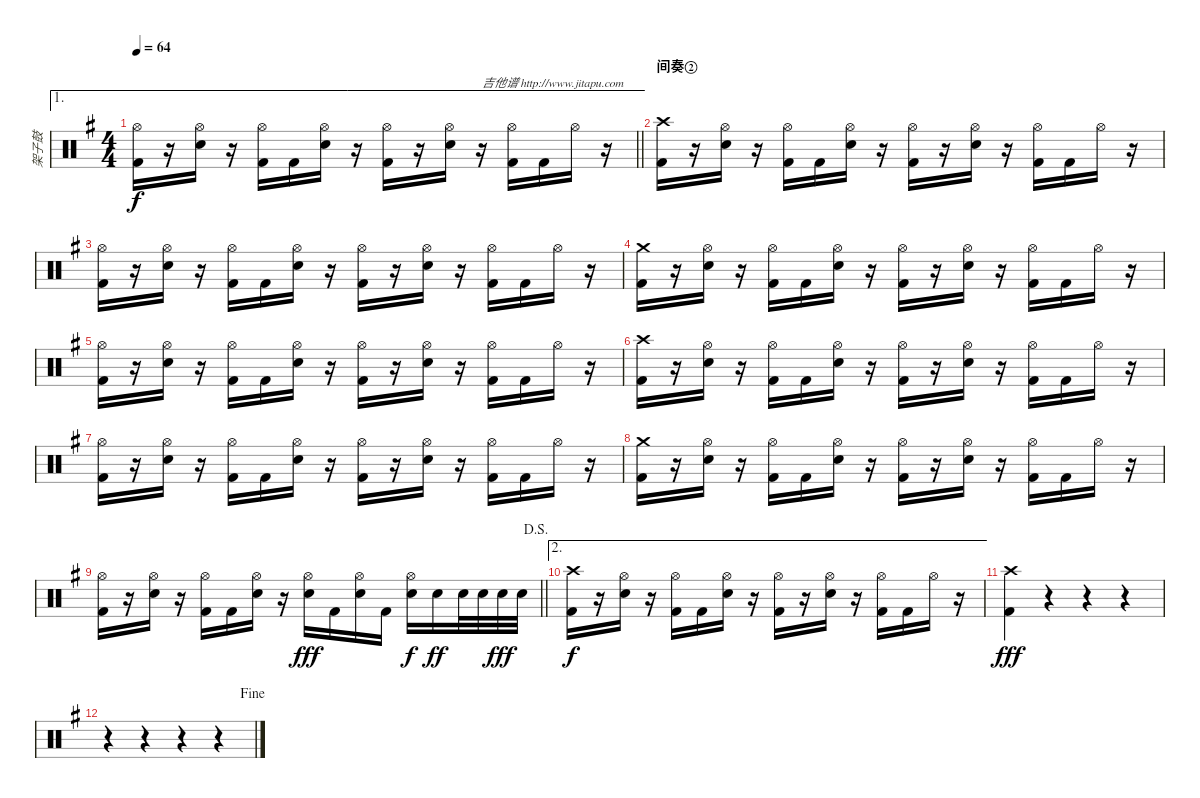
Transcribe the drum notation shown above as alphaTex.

\track ("架子鼓" "架子鼓") {instrument percussion}
\staff {score}
\articulation defaults
\ae 1
\ts (4 4)
\tempo 64
\clef neutral
\barLineRight lightlight
\ks g
("Hi-Hat (open)" "Kick (hit) 2").16{dy f} r.16 ("Hi-Hat (open)" "Electric Snare (hit)").16 r.16 ("Hi-Hat (open)" "Kick (hit) 2").16 "Kick (hit) 2".16 ("Hi-Hat (open)" "Electric Snare (hit)").16 r.16 ("Hi-Hat (open)" "Kick (hit) 2").16 r.16 ("Hi-Hat (open)" "Electric Snare (hit)").16 r.16{txt "吉他谱 http://www.jitapu.com"} ("Hi-Hat (open)" "Kick (hit) 2").16 "Kick (hit) 2".16 "Hi-Hat (open)".16 r.16 |
\section ("" "间奏②")
("Crash high (hit)" "Kick (hit) 2").16 r.16 ("Hi-Hat (open)" "Electric Snare (hit)").16 r.16 ("Hi-Hat (open)" "Kick (hit) 2").16 "Kick (hit) 2".16 ("Hi-Hat (open)" "Electric Snare (hit)").16 r.16 ("Hi-Hat (open)" "Kick (hit) 2").16 r.16 ("Hi-Hat (open)" "Electric Snare (hit)").16 r.16 ("Hi-Hat (open)" "Kick (hit) 2").16 "Kick (hit) 2".16 "Hi-Hat (open)".16 r.16 |
("Hi-Hat (open)" "Kick (hit) 2").16 r.16 ("Hi-Hat (open)" "Electric Snare (hit)").16 r.16 ("Hi-Hat (open)" "Kick (hit) 2").16 "Kick (hit) 2".16 ("Hi-Hat (open)" "Electric Snare (hit)").16 r.16 ("Hi-Hat (open)" "Kick (hit) 2").16 r.16 ("Hi-Hat (open)" "Electric Snare (hit)").16 r.16 ("Hi-Hat (open)" "Kick (hit) 2").16 "Kick (hit) 2".16 "Hi-Hat (open)".16 r.16 |
("Crash medium (hit)" "Kick (hit) 2").16 r.16 ("Hi-Hat (open)" "Electric Snare (hit)").16 r.16 ("Hi-Hat (open)" "Kick (hit) 2").16 "Kick (hit) 2".16 ("Hi-Hat (open)" "Electric Snare (hit)").16 r.16 ("Hi-Hat (open)" "Kick (hit) 2").16 r.16 ("Hi-Hat (open)" "Electric Snare (hit)").16 r.16 ("Hi-Hat (open)" "Kick (hit) 2").16 "Kick (hit) 2".16 "Hi-Hat (open)".16 r.16 |
("Hi-Hat (open)" "Kick (hit) 2").16 r.16 ("Hi-Hat (open)" "Electric Snare (hit)").16 r.16 ("Hi-Hat (open)" "Kick (hit) 2").16 "Kick (hit) 2".16 ("Hi-Hat (open)" "Electric Snare (hit)").16 r.16 ("Hi-Hat (open)" "Kick (hit) 2").16 r.16 ("Hi-Hat (open)" "Electric Snare (hit)").16 r.16 ("Hi-Hat (open)" "Kick (hit) 2").16 "Kick (hit) 2".16 "Hi-Hat (open)".16 r.16 |
("Crash high (hit)" "Kick (hit) 2").16 r.16 ("Hi-Hat (open)" "Electric Snare (hit)").16 r.16 ("Hi-Hat (open)" "Kick (hit) 2").16 "Kick (hit) 2".16 ("Hi-Hat (open)" "Electric Snare (hit)").16 r.16 ("Hi-Hat (open)" "Kick (hit) 2").16 r.16 ("Hi-Hat (open)" "Electric Snare (hit)").16 r.16 ("Hi-Hat (open)" "Kick (hit) 2").16 "Kick (hit) 2".16 "Hi-Hat (open)".16 r.16 |
("Hi-Hat (open)" "Kick (hit) 2").16 r.16 ("Hi-Hat (open)" "Electric Snare (hit)").16 r.16 ("Hi-Hat (open)" "Kick (hit) 2").16 "Kick (hit) 2".16 ("Hi-Hat (open)" "Electric Snare (hit)").16 r.16 ("Hi-Hat (open)" "Kick (hit) 2").16 r.16 ("Hi-Hat (open)" "Electric Snare (hit)").16 r.16 ("Hi-Hat (open)" "Kick (hit) 2").16 "Kick (hit) 2".16 "Hi-Hat (open)".16 r.16 |
("Crash medium (hit)" "Kick (hit) 2").16 r.16 ("Hi-Hat (open)" "Electric Snare (hit)").16 r.16 ("Hi-Hat (open)" "Kick (hit) 2").16 "Kick (hit) 2".16 ("Hi-Hat (open)" "Electric Snare (hit)").16 r.16 ("Hi-Hat (open)" "Kick (hit) 2").16 r.16 ("Hi-Hat (open)" "Electric Snare (hit)").16 r.16 ("Hi-Hat (open)" "Kick (hit) 2").16 "Kick (hit) 2".16 "Hi-Hat (open)".16 r.16 |
\jump dalsegno
\barLineRight lightlight
("Hi-Hat (open)" "Kick (hit) 2").16 r.16 ("Hi-Hat (open)" "Electric Snare (hit)").16 r.16 ("Hi-Hat (open)" "Kick (hit) 2").16 "Kick (hit) 2".16 ("Hi-Hat (open)" "Electric Snare (hit)").16 r.16 ("Hi-Hat (open)" "Electric Snare (hit)").16{dy fff} "Kick (hit) 2".16 ("Hi-Hat (open)" "Electric Snare (hit)").16 "Kick (hit) 2".16 ("Hi-Hat (open)" "Electric Snare (hit)").16{dy f} "Electric Snare (hit)".16{dy ff} "Electric Snare (hit)".32 "Electric Snare (hit)".32 "Electric Snare (hit)".32{dy fff} "Electric Snare (hit)".32 |
\ae 2
("Crash high (hit)" "Kick (hit) 2").16{dy f} r.16 ("Hi-Hat (open)" "Electric Snare (hit)").16 r.16 ("Hi-Hat (open)" "Kick (hit) 2").16 "Kick (hit) 2".16 ("Hi-Hat (open)" "Electric Snare (hit)").16 r.16 ("Hi-Hat (open)" "Kick (hit) 2").16 r.16 ("Hi-Hat (open)" "Electric Snare (hit)").16 r.16 ("Hi-Hat (open)" "Kick (hit) 2").16 "Kick (hit) 2".16 "Hi-Hat (open)".16 r.16 |
("Crash high (hit)" "Kick (hit) 2").4{dy fff} r.4 r.4 r.4 |
\jump fine
r.4 r.4 r.4 r.4
